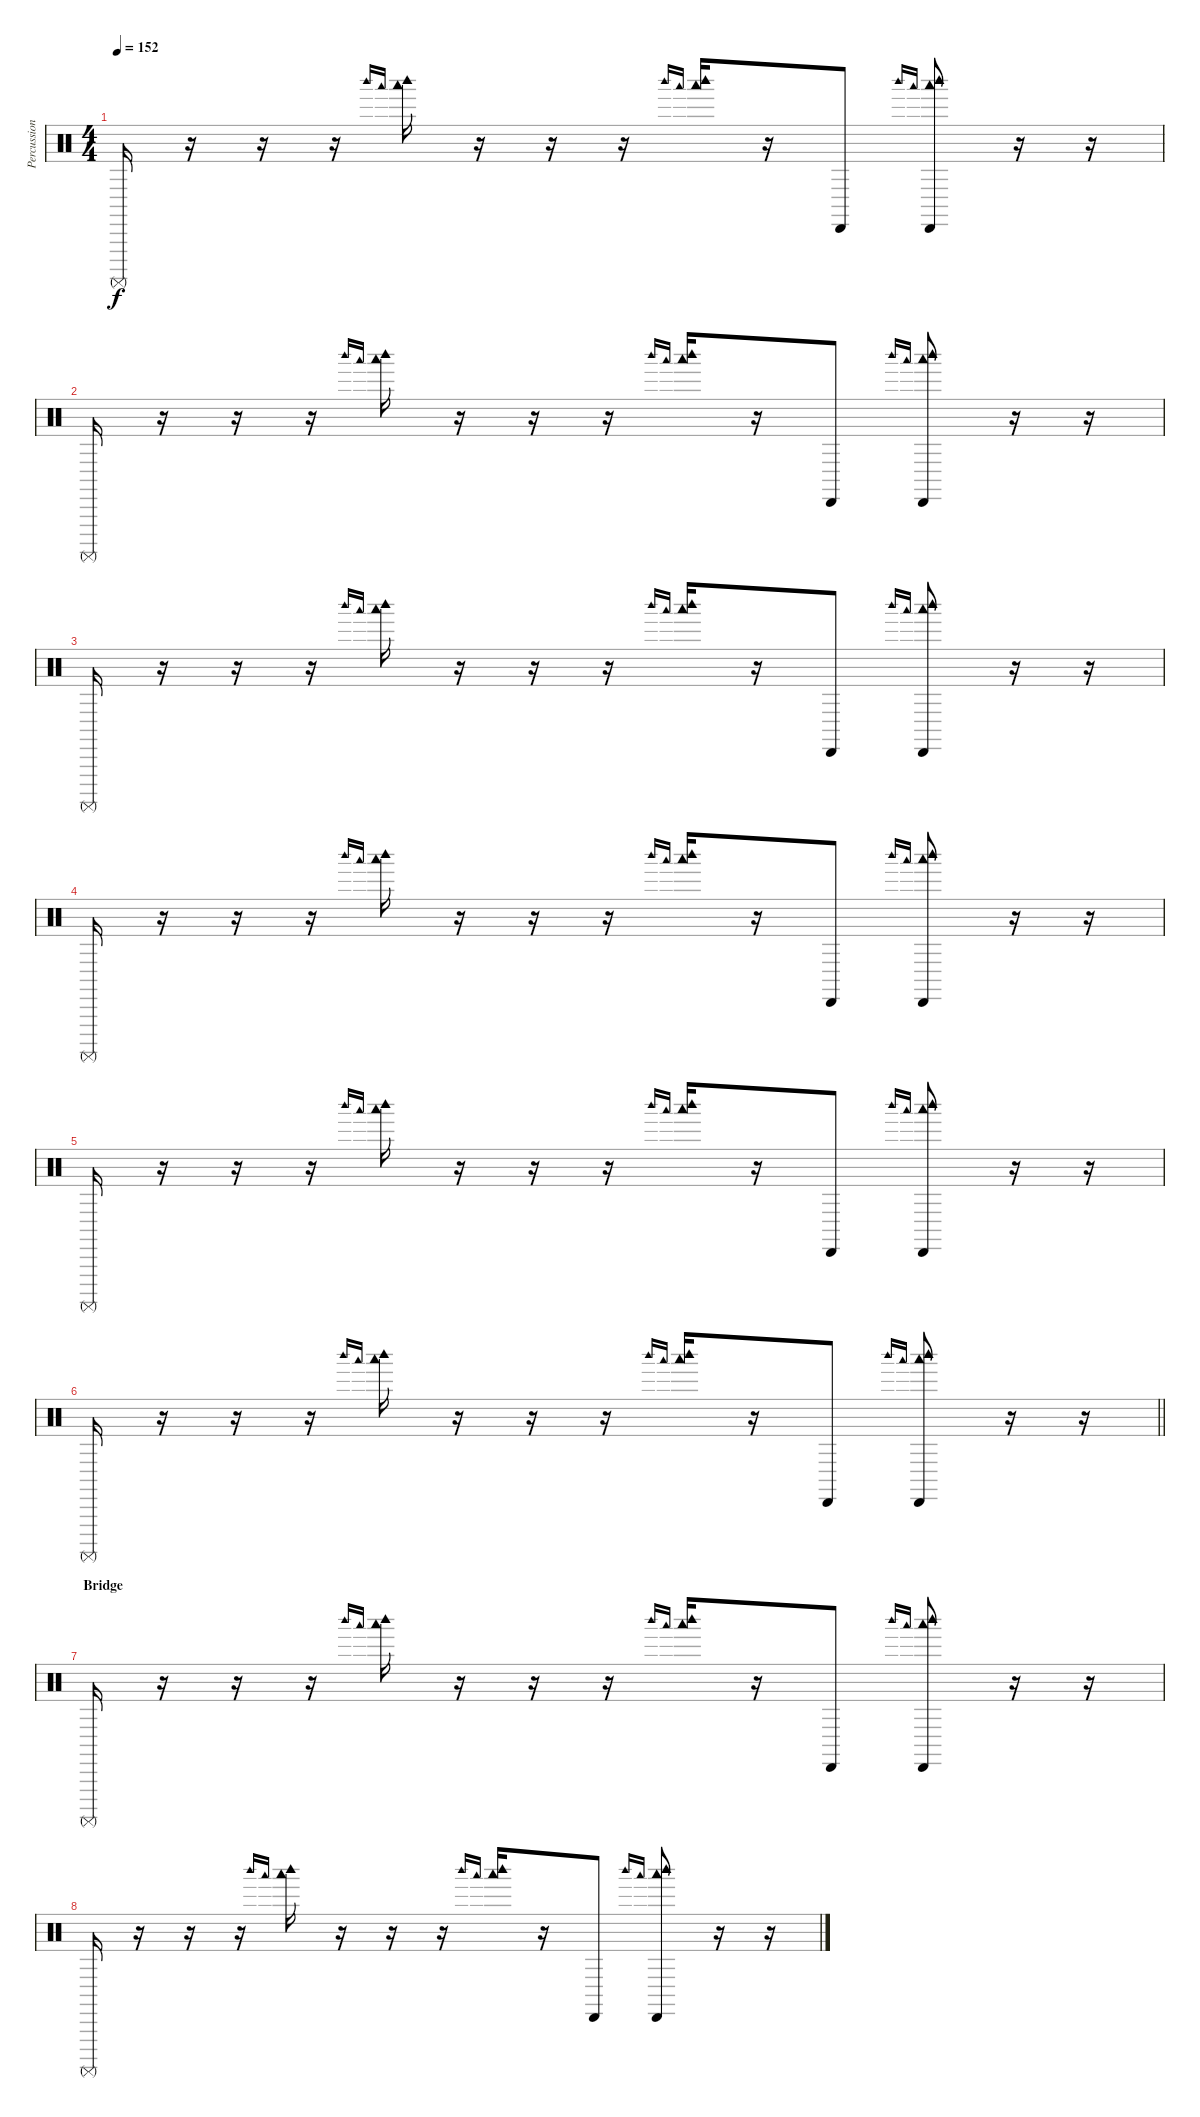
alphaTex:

\track ("Percussion" "Percussion") {instrument percussion}
\staff {score}
\articulation defaults
\ts (4 4)
\tempo 152
\clef neutral
\ks c "Surdo (mute)".16{dy f}
r.16 r.16 r.16 "Woodblock high (hit)".16{gr onbeat} "Woodblock low (hit)".16{gr onbeat} ("Woodblock high (hit)" "Woodblock low (hit)").16 r.16 r.16 r.16 "Woodblock high (hit)".16{gr onbeat} "Woodblock low (hit)".16{gr onbeat} ("Woodblock high (hit)" "Woodblock low (hit)").16 r.16 "Cabasa (hit)".8 "Woodblock high (hit)".16{gr onbeat} "Woodblock low (hit)".16{gr onbeat} ("Cabasa (hit)" "Woodblock high (hit)" "Woodblock low (hit)").8 r.16 r.16 |
"Surdo (mute)".16 r.16 r.16 r.16 "Woodblock high (hit)".16{gr onbeat} "Woodblock low (hit)".16{gr onbeat} ("Woodblock high (hit)" "Woodblock low (hit)").16 r.16 r.16 r.16 "Woodblock high (hit)".16{gr onbeat} "Woodblock low (hit)".16{gr onbeat} ("Woodblock high (hit)" "Woodblock low (hit)").16 r.16 "Cabasa (hit)".8 "Woodblock high (hit)".16{gr onbeat} "Woodblock low (hit)".16{gr onbeat} ("Cabasa (hit)" "Woodblock high (hit)" "Woodblock low (hit)").8 r.16 r.16 |
"Surdo (mute)".16 r.16 r.16 r.16 "Woodblock high (hit)".16{gr onbeat} "Woodblock low (hit)".16{gr onbeat} ("Woodblock high (hit)" "Woodblock low (hit)").16 r.16 r.16 r.16 "Woodblock high (hit)".16{gr onbeat} "Woodblock low (hit)".16{gr onbeat} ("Woodblock high (hit)" "Woodblock low (hit)").16 r.16 "Cabasa (hit)".8 "Woodblock high (hit)".16{gr onbeat} "Woodblock low (hit)".16{gr onbeat} ("Cabasa (hit)" "Woodblock high (hit)" "Woodblock low (hit)").8 r.16 r.16 |
"Surdo (mute)".16 r.16 r.16 r.16 "Woodblock high (hit)".16{gr onbeat} "Woodblock low (hit)".16{gr onbeat} ("Woodblock high (hit)" "Woodblock low (hit)").16 r.16 r.16 r.16 "Woodblock high (hit)".16{gr onbeat} "Woodblock low (hit)".16{gr onbeat} ("Woodblock high (hit)" "Woodblock low (hit)").16 r.16 "Cabasa (hit)".8 "Woodblock high (hit)".16{gr onbeat} "Woodblock low (hit)".16{gr onbeat} ("Cabasa (hit)" "Woodblock high (hit)" "Woodblock low (hit)").8 r.16 r.16 |
"Surdo (mute)".16 r.16 r.16 r.16 "Woodblock high (hit)".16{gr onbeat} "Woodblock low (hit)".16{gr onbeat} ("Woodblock high (hit)" "Woodblock low (hit)").16 r.16 r.16 r.16 "Woodblock high (hit)".16{gr onbeat} "Woodblock low (hit)".16{gr onbeat} ("Woodblock high (hit)" "Woodblock low (hit)").16 r.16 "Cabasa (hit)".8 "Woodblock high (hit)".16{gr onbeat} "Woodblock low (hit)".16{gr onbeat} ("Cabasa (hit)" "Woodblock high (hit)" "Woodblock low (hit)").8 r.16 r.16 |
\barLineRight lightlight "Surdo (mute)".16
r.16 r.16 r.16 "Woodblock high (hit)".16{gr onbeat} "Woodblock low (hit)".16{gr onbeat} ("Woodblock high (hit)" "Woodblock low (hit)").16 r.16 r.16 r.16 "Woodblock high (hit)".16{gr onbeat} "Woodblock low (hit)".16{gr onbeat} ("Woodblock high (hit)" "Woodblock low (hit)").16 r.16 "Cabasa (hit)".8 "Woodblock high (hit)".16{gr onbeat} "Woodblock low (hit)".16{gr onbeat} ("Cabasa (hit)" "Woodblock high (hit)" "Woodblock low (hit)").8 r.16 r.16 |
\section ("" "Bridge")
"Surdo (mute)".16 r.16 r.16 r.16 "Woodblock high (hit)".16{gr onbeat} "Woodblock low (hit)".16{gr onbeat} ("Woodblock high (hit)" "Woodblock low (hit)").16 r.16 r.16 r.16 "Woodblock high (hit)".16{gr onbeat} "Woodblock low (hit)".16{gr onbeat} ("Woodblock high (hit)" "Woodblock low (hit)").16 r.16 "Cabasa (hit)".8 "Woodblock high (hit)".16{gr onbeat} "Woodblock low (hit)".16{gr onbeat} ("Cabasa (hit)" "Woodblock high (hit)" "Woodblock low (hit)").8 r.16 r.16 |
"Surdo (mute)".16 r.16 r.16 r.16 "Woodblock high (hit)".16{gr onbeat} "Woodblock low (hit)".16{gr onbeat} ("Woodblock high (hit)" "Woodblock low (hit)").16 r.16 r.16 r.16 "Woodblock high (hit)".16{gr onbeat} "Woodblock low (hit)".16{gr onbeat} ("Woodblock high (hit)" "Woodblock low (hit)").16 r.16 "Cabasa (hit)".8 "Woodblock high (hit)".16{gr onbeat} "Woodblock low (hit)".16{gr onbeat} ("Cabasa (hit)" "Woodblock high (hit)" "Woodblock low (hit)").8 r.16 r.16
